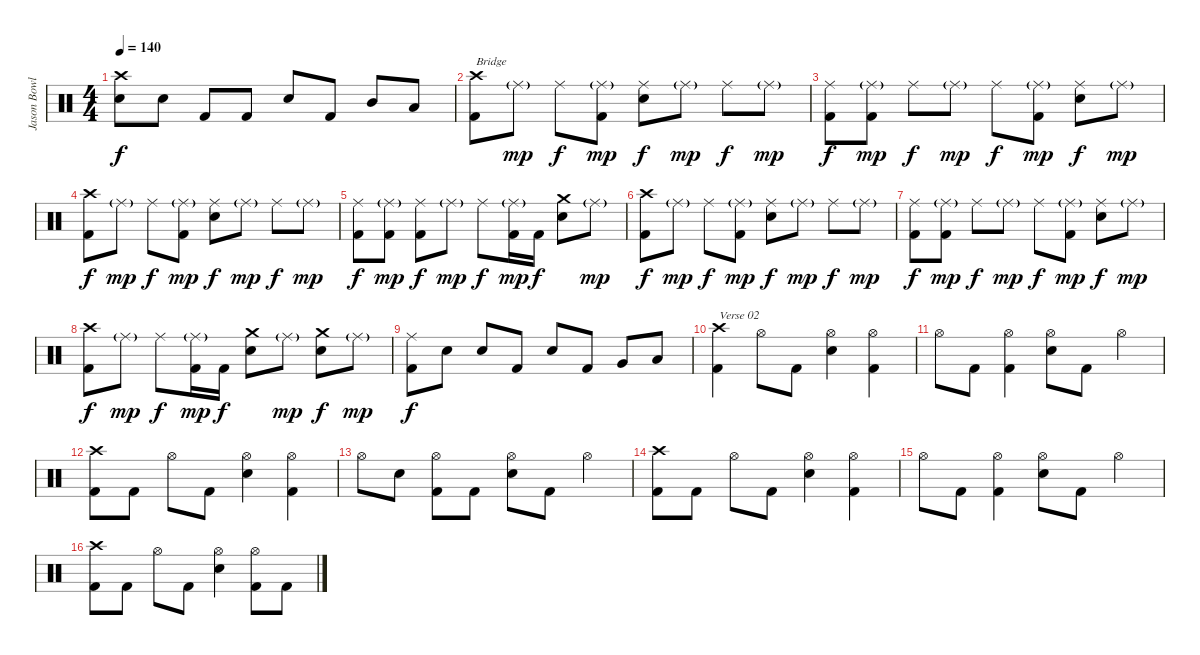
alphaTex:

\track ("Jason Bowld" "Jason Bowl") {instrument percussion}
\staff {score}
\articulation defaults
\ts (4 4)
\tempo 140
\clef neutral
\ks c
("Crash high (hit)" "Snare (hit) 2").8{dy f} "Snare (hit) 2".8 "Kick (hit) 2".8 "Kick (hit) 2".8 "Snare (hit) 2".8 "Kick (hit) 2".8 "Mid Tom (hit)".8 "Low Tom (hit)".8 |
("Crash high (hit)" "Kick (hit) 2").8{txt "Bridge"} "Ride (middle)"{g}.8{dy mp} "Ride (middle)".8{dy f} ("Ride (middle)"{g} "Kick (hit) 2").8{dy mp} ("Ride (middle)" "Snare (hit) 2").8{dy f} "Ride (middle)"{g}.8{dy mp} "Ride (middle)".8{dy f} "Ride (middle)"{g}.8{dy mp} |
("Ride (middle)" "Kick (hit) 2").8{dy f} ("Ride (middle)"{g} "Kick (hit) 2").8{dy mp} "Ride (middle)".8{dy f} "Ride (middle)"{g}.8{dy mp} "Ride (middle)".8{dy f} ("Ride (middle)"{g} "Kick (hit) 2").8{dy mp} ("Ride (middle)" "Snare (hit) 2").8{dy f} "Ride (middle)"{g}.8{dy mp} |
("Crash high (hit)" "Kick (hit) 2").8{dy f} "Ride (middle)"{g}.8{dy mp} "Ride (middle)".8{dy f} ("Ride (middle)"{g} "Kick (hit) 2").8{dy mp} ("Ride (middle)" "Snare (hit) 2").8{dy f} "Ride (middle)"{g}.8{dy mp} "Ride (middle)".8{dy f} "Ride (middle)"{g}.8{dy mp} |
("Ride (middle)" "Kick (hit) 2").8{dy f} ("Ride (middle)"{g} "Kick (hit) 2").8{dy mp} ("Ride (middle)" "Kick (hit) 2").8{dy f} "Ride (middle)"{g}.8{dy mp} "Ride (middle)".8{dy f} ("Ride (middle)"{g} "Kick (hit) 2").16{dy mp} "Kick (hit) 2".16{dy f} ("Crash medium (hit)" "Snare (hit) 2").8 "Ride (middle)"{g}.8{dy mp} |
("Crash high (hit)" "Kick (hit) 2").8{dy f} "Ride (middle)"{g}.8{dy mp} "Ride (middle)".8{dy f} ("Ride (middle)"{g} "Kick (hit) 2").8{dy mp} ("Ride (middle)" "Snare (hit) 2").8{dy f} "Ride (middle)"{g}.8{dy mp} "Ride (middle)".8{dy f} "Ride (middle)"{g}.8{dy mp} |
("Ride (middle)" "Kick (hit) 2").8{dy f} ("Ride (middle)"{g} "Kick (hit) 2").8{dy mp} "Ride (middle)".8{dy f} "Ride (middle)"{g}.8{dy mp} "Ride (middle)".8{dy f} ("Ride (middle)"{g} "Kick (hit) 2").8{dy mp} ("Ride (middle)" "Snare (hit) 2").8{dy f} "Ride (middle)"{g}.8{dy mp} |
("Crash high (hit)" "Kick (hit) 2").8{dy f} "Ride (middle)"{g}.8{dy mp} "Ride (middle)".8{dy f} ("Ride (middle)"{g} "Kick (hit) 2").16{dy mp} "Kick (hit) 2".16{dy f} ("Crash medium (hit)" "Snare (hit) 2").8 "Ride (middle)"{g}.8{dy mp} ("Crash medium (hit)" "Snare (hit) 2").8{dy f} "Ride (middle)"{g}.8{dy mp} |
("Ride (middle)" "Kick (hit) 2").8{dy f} "Snare (hit) 2".8 "Snare (hit) 2".8 "Kick (hit) 2".8 "Snare (hit) 2".8 "Kick (hit) 2".8 "Very Low Tom (hit)".8 "Low Tom (hit)".8 |
("Crash high (hit)" "Kick (hit) 2").4{txt "Verse 02"} "Hi-Hat (open)".8 "Kick (hit) 2".8 ("Hi-Hat (open)" "Snare (hit) 2").4 ("Hi-Hat (open)" "Kick (hit) 2").4 |
"Hi-Hat (open)".8 "Kick (hit) 2".8 ("Hi-Hat (open)" "Kick (hit) 2").4 ("Hi-Hat (open)" "Snare (hit) 2").8 "Kick (hit) 2".8 "Hi-Hat (open)".4 |
("Crash high (hit)" "Kick (hit) 2").8 "Kick (hit) 2".8 "Hi-Hat (open)".8 "Kick (hit) 2".8 ("Hi-Hat (open)" "Snare (hit) 2").4 ("Hi-Hat (open)" "Kick (hit) 2").4 |
"Hi-Hat (open)".8 "Snare (hit) 2".8 ("Hi-Hat (open)" "Kick (hit) 2").8 "Kick (hit) 2".8 ("Hi-Hat (open)" "Snare (hit) 2").8 "Kick (hit) 2".8 "Hi-Hat (open)".4 |
("Crash high (hit)" "Kick (hit) 2").8 "Kick (hit) 2".8 "Hi-Hat (open)".8 "Kick (hit) 2".8 ("Hi-Hat (open)" "Snare (hit) 2").4 ("Hi-Hat (open)" "Kick (hit) 2").4 |
"Hi-Hat (open)".8 "Kick (hit) 2".8 ("Hi-Hat (open)" "Kick (hit) 2").4 ("Hi-Hat (open)" "Snare (hit) 2").8 "Kick (hit) 2".8 "Hi-Hat (open)".4 |
("Crash high (hit)" "Kick (hit) 2").8 "Kick (hit) 2".8 "Hi-Hat (open)".8 "Kick (hit) 2".8 ("Hi-Hat (open)" "Snare (hit) 2").4 ("Hi-Hat (open)" "Kick (hit) 2").8 "Kick (hit) 2".8
